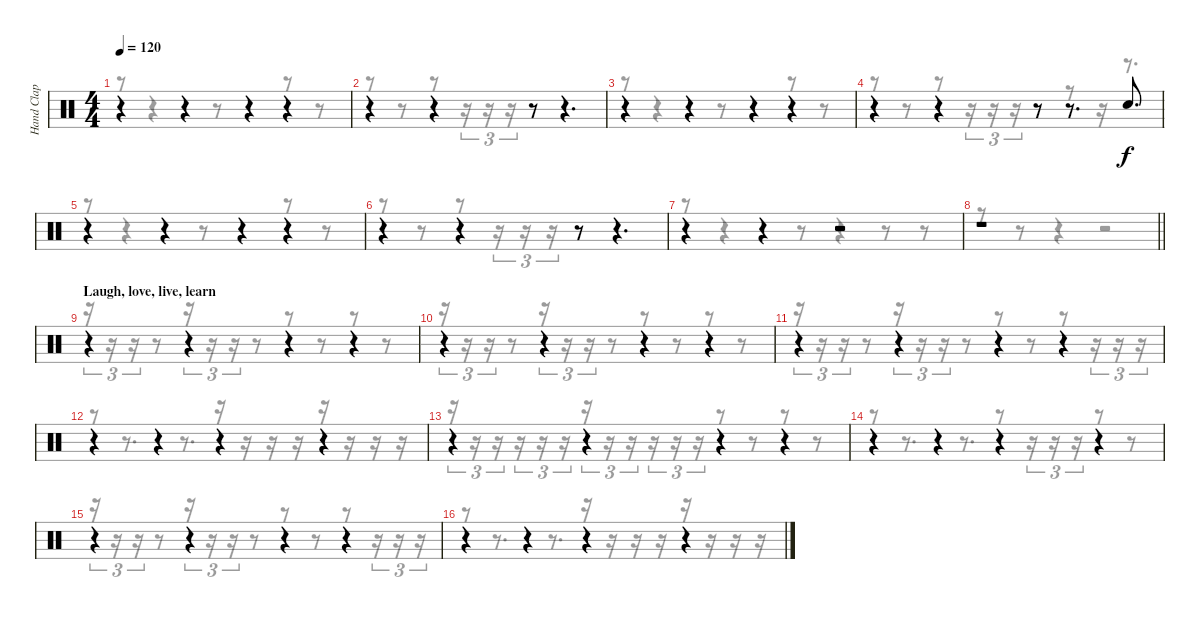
\track ("Hand Clap" "Hand Clap") {instrument percussion}
\staff {score}
\articulation defaults
\voice
\ts (4 4)
\tempo 120
\clef neutral
\ks c
r.4{dy f} r.4 r.4 r.4 |
r.4 r.4 r.8 r.4{d} |
r.4 r.4 r.4 r.4 |
r.4 r.4 r.8 r.8{d} "Hand Clap (hit)".8{d} |
r.4 r.4 r.4 r.4 |
r.4 r.4 r.8 r.4{d} |
r.4 r.4 r.2 |
\barLineRight lightlight
r.1 |
\section ("" "Laugh, love, live, learn")
r.4 r.4 r.4 r.4 |
r.4 r.4 r.4 r.4 |
r.4 r.4 r.4 r.4 |
r.4 r.4 r.4 r.4 |
r.4 r.4 r.4 r.4 |
r.4 r.4 r.4 r.4 |
r.4 r.4 r.4 r.4 |
r.4 r.4 r.4 r.4
\voice
\clef neutral
\ottava regular
\simile none
\ks c
r.8{dy f} r.4 r.8 r.4 r.8 r.8 |
r.8 r.8 r.8 r.16{tu (3 2)} r.16{tu (3 2)} r.16{tu (3 2)} r.8 r.4{d} |
r.8 r.4 r.8 r.4 r.8 r.8 |
r.8 r.8 r.8 r.16{tu (3 2)} r.16{tu (3 2)} r.16{tu (3 2)} r.8 r.8 r.16 r.8{d} |
r.8 r.4 r.8 r.4 r.8 r.8 |
r.8 r.8 r.8 r.16{tu (3 2)} r.16{tu (3 2)} r.16{tu (3 2)} r.8 r.4{d} |
r.8 r.4 r.8 r.4 r.8 r.8 |
\barLineRight lightlight
r.8 r.8 r.4 r.2 |
r.16{tu (3 2)} r.16{tu (3 2)} r.16{tu (3 2)} r.8 r.16{tu (3 2)} r.16{tu (3 2)} r.16{tu (3 2)} r.8 r.8 r.8 r.8 r.8 |
r.16{tu (3 2)} r.16{tu (3 2)} r.16{tu (3 2)} r.8 r.16{tu (3 2)} r.16{tu (3 2)} r.16{tu (3 2)} r.8 r.8 r.8 r.8 r.8 |
r.16{tu (3 2)} r.16{tu (3 2)} r.16{tu (3 2)} r.8 r.16{tu (3 2)} r.16{tu (3 2)} r.16{tu (3 2)} r.8 r.8 r.8 r.8 r.16{tu (3 2)} r.16{tu (3 2)} r.16{tu (3 2)} |
r.8 r.8{d} r.8{d} r.16 r.16 r.16 r.16 r.16 r.16 r.16 r.16 |
r.16{tu (3 2)} r.16{tu (3 2)} r.16{tu (3 2)} r.16{tu (3 2)} r.16{tu (3 2)} r.16{tu (3 2)} r.16{tu (3 2)} r.16{tu (3 2)} r.16{tu (3 2)} r.16{tu (3 2)} r.16{tu (3 2)} r.16{tu (3 2)} r.8 r.8 r.8 r.8 |
r.8 r.8{d} r.8{d} r.8 r.16{tu (3 2)} r.16{tu (3 2)} r.16{tu (3 2)} r.8 r.8 |
r.16{tu (3 2)} r.16{tu (3 2)} r.16{tu (3 2)} r.8 r.16{tu (3 2)} r.16{tu (3 2)} r.16{tu (3 2)} r.8 r.8 r.8 r.8 r.16{tu (3 2)} r.16{tu (3 2)} r.16{tu (3 2)} |
r.8 r.8{d} r.8{d} r.16 r.16 r.16 r.16 r.16 r.16 r.16 r.16
